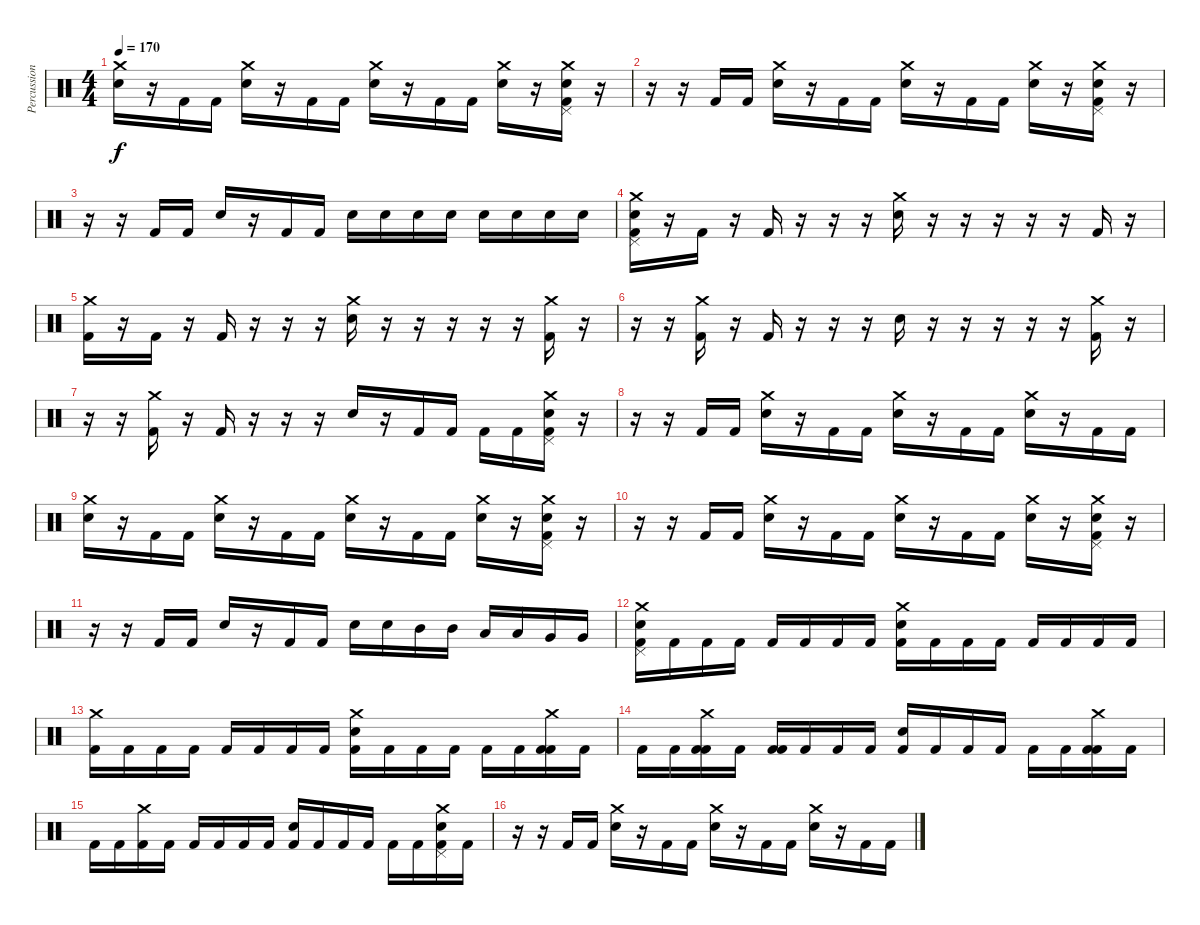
\track ("Percussion" "Percussion") {instrument percussion}
\staff {score}
\articulation defaults
\ts (4 4)
\tempo 170
\clef neutral
\ks c
("Crash medium (hit)" "Electric Snare (hit)").16{dy f} r.16 "Kick (hit) 2".16 "Kick (hit) 2".16 ("Crash medium (hit)" "Electric Snare (hit)").16 r.16 "Kick (hit) 2".16 "Kick (hit) 2".16 ("Crash medium (hit)" "Electric Snare (hit)").16 r.16 "Kick (hit) 2".16 "Kick (hit) 2".16 ("Crash medium (hit)" "Electric Snare (hit)").16 r.16 ("Pedal Hi-Hat (hit)" "Crash medium (hit)" "Electric Snare (hit)" "Kick (hit) 2").16 r.16 |
r.16 r.16 "Kick (hit) 2".16 "Kick (hit) 2".16 ("Crash medium (hit)" "Electric Snare (hit)").16 r.16 "Kick (hit) 2".16 "Kick (hit) 2".16 ("Crash medium (hit)" "Electric Snare (hit)").16 r.16 "Kick (hit) 2".16 "Kick (hit) 2".16 ("Crash medium (hit)" "Electric Snare (hit)").16 r.16 ("Pedal Hi-Hat (hit)" "Crash medium (hit)" "Electric Snare (hit)" "Kick (hit) 2").16 r.16 |
r.16 r.16 "Kick (hit) 2".16 "Kick (hit) 2".16 "Electric Snare (hit)".16 r.16 "Kick (hit) 2".16 "Kick (hit) 2".16 "Electric Snare (hit)".16 "Electric Snare (hit)".16 "Electric Snare (hit)".16 "Electric Snare (hit)".16 "Electric Snare (hit)".16 "Electric Snare (hit)".16 "Electric Snare (hit)".16 "Electric Snare (hit)".16 |
("Pedal Hi-Hat (hit)" "Crash medium (hit)" "Electric Snare (hit)" "Kick (hit) 2").16 r.16 "Kick (hit) 2".16 r.16 "Kick (hit) 2".16 r.16 r.16 r.16 ("Crash medium (hit)" "Electric Snare (hit)").16 r.16 r.16 r.16 r.16 r.16 "Kick (hit) 2".16 r.16 |
("Crash medium (hit)" "Kick (hit) 2").16 r.16 "Kick (hit) 2".16 r.16 "Kick (hit) 2".16 r.16 r.16 r.16 ("Crash medium (hit)" "Electric Snare (hit)").16 r.16 r.16 r.16 r.16 r.16 ("Crash medium (hit)" "Kick (hit) 2").16 r.16 |
r.16 r.16 ("Crash medium (hit)" "Kick (hit) 2").16 r.16 "Kick (hit) 2".16 r.16 r.16 r.16 "Electric Snare (hit)".16 r.16 r.16 r.16 r.16 r.16 ("Crash medium (hit)" "Kick (hit) 2").16 r.16 |
r.16 r.16 ("Crash medium (hit)" "Kick (hit) 2").16 r.16 "Kick (hit) 2".16 r.16 r.16 r.16 "Electric Snare (hit)".16 r.16 "Kick (hit) 2".16 "Kick (hit) 2".16 "Kick (hit) 2".16 "Kick (hit) 2".16 ("Pedal Hi-Hat (hit)" "Crash medium (hit)" "Electric Snare (hit)" "Kick (hit) 2").16 r.16 |
r.16 r.16 "Kick (hit) 2".16 "Kick (hit) 2".16 ("Crash medium (hit)" "Electric Snare (hit)").16 r.16 "Kick (hit) 2".16 "Kick (hit) 2".16 ("Crash medium (hit)" "Electric Snare (hit)").16 r.16 "Kick (hit) 2".16 "Kick (hit) 2".16 ("Crash medium (hit)" "Electric Snare (hit)").16 r.16 "Kick (hit) 2".16 "Kick (hit) 2".16 |
("Crash medium (hit)" "Electric Snare (hit)").16 r.16 "Kick (hit) 2".16 "Kick (hit) 2".16 ("Crash medium (hit)" "Electric Snare (hit)").16 r.16 "Kick (hit) 2".16 "Kick (hit) 2".16 ("Crash medium (hit)" "Electric Snare (hit)").16 r.16 "Kick (hit) 2".16 "Kick (hit) 2".16 ("Crash medium (hit)" "Electric Snare (hit)").16 r.16 ("Pedal Hi-Hat (hit)" "Crash medium (hit)" "Electric Snare (hit)" "Kick (hit) 2").16 r.16 |
r.16 r.16 "Kick (hit) 2".16 "Kick (hit) 2".16 ("Crash medium (hit)" "Electric Snare (hit)").16 r.16 "Kick (hit) 2".16 "Kick (hit) 2".16 ("Crash medium (hit)" "Electric Snare (hit)").16 r.16 "Kick (hit) 2".16 "Kick (hit) 2".16 ("Crash medium (hit)" "Electric Snare (hit)").16 r.16 ("Pedal Hi-Hat (hit)" "Crash medium (hit)" "Electric Snare (hit)" "Kick (hit) 2").16 r.16 |
r.16 r.16 "Kick (hit) 2".16 "Kick (hit) 2".16 "Electric Snare (hit)".16 r.16 "Kick (hit) 2".16 "Kick (hit) 2".16 "Electric Snare (hit)".16 "Electric Snare (hit)".16 "Mid Tom (hit)".16 "Mid Tom (hit)".16 "Low Tom (hit)".16 "Low Tom (hit)".16 "Very Low Tom (hit)".16 "Very Low Tom (hit)".16 |
("Pedal Hi-Hat (hit)" "Crash medium (hit)" "Electric Snare (hit)" "Kick (hit) 2").16 "Kick (hit) 2".16 "Kick (hit) 2".16 "Kick (hit) 2".16 "Kick (hit) 2".16 "Kick (hit) 2".16 "Kick (hit) 2".16 "Kick (hit) 2".16 ("Crash medium (hit)" "Electric Snare (hit)" "Kick (hit) 2").16 "Kick (hit) 2".16 "Kick (hit) 2".16 "Kick (hit) 2".16 "Kick (hit) 2".16 "Kick (hit) 2".16 "Kick (hit) 2".16 "Kick (hit) 2".16 |
("Crash medium (hit)" "Kick (hit) 2").16 "Kick (hit) 2".16 "Kick (hit) 2".16 "Kick (hit) 2".16 "Kick (hit) 2".16 "Kick (hit) 2".16 "Kick (hit) 2".16 "Kick (hit) 2".16 ("Crash medium (hit)" "Electric Snare (hit)" "Kick (hit) 2").16 "Kick (hit) 2".16 "Kick (hit) 2".16 "Kick (hit) 2".16 "Kick (hit) 2".16 "Kick (hit) 2".16 ("Crash medium (hit)" "Kick (hit) 2" "Kick (hit) 2").16 "Kick (hit) 2".16 |
"Kick (hit) 2".16 "Kick (hit) 2".16 ("Crash medium (hit)" "Kick (hit) 2" "Kick (hit) 2").16 "Kick (hit) 2".16 ("Kick (hit) 2" "Kick (hit) 2").16 "Kick (hit) 2".16 "Kick (hit) 2".16 "Kick (hit) 2".16 ("Electric Snare (hit)" "Kick (hit) 2").16 "Kick (hit) 2".16 "Kick (hit) 2".16 "Kick (hit) 2".16 "Kick (hit) 2".16 "Kick (hit) 2".16 ("Crash medium (hit)" "Kick (hit) 2" "Kick (hit) 2").16 "Kick (hit) 2".16 |
"Kick (hit) 2".16 "Kick (hit) 2".16 ("Crash medium (hit)" "Kick (hit) 2").16 "Kick (hit) 2".16 "Kick (hit) 2".16 "Kick (hit) 2".16 "Kick (hit) 2".16 "Kick (hit) 2".16 ("Electric Snare (hit)" "Kick (hit) 2").16 "Kick (hit) 2".16 "Kick (hit) 2".16 "Kick (hit) 2".16 "Kick (hit) 2".16 "Kick (hit) 2".16 ("Pedal Hi-Hat (hit)" "Crash medium (hit)" "Electric Snare (hit)" "Kick (hit) 2").16 "Kick (hit) 2".16 |
r.16 r.16 "Kick (hit) 2".16 "Kick (hit) 2".16 ("Crash medium (hit)" "Electric Snare (hit)").16 r.16 "Kick (hit) 2".16 "Kick (hit) 2".16 ("Crash medium (hit)" "Electric Snare (hit)").16 r.16 "Kick (hit) 2".16 "Kick (hit) 2".16 ("Crash medium (hit)" "Electric Snare (hit)").16 r.16 "Kick (hit) 2".16 "Kick (hit) 2".16
